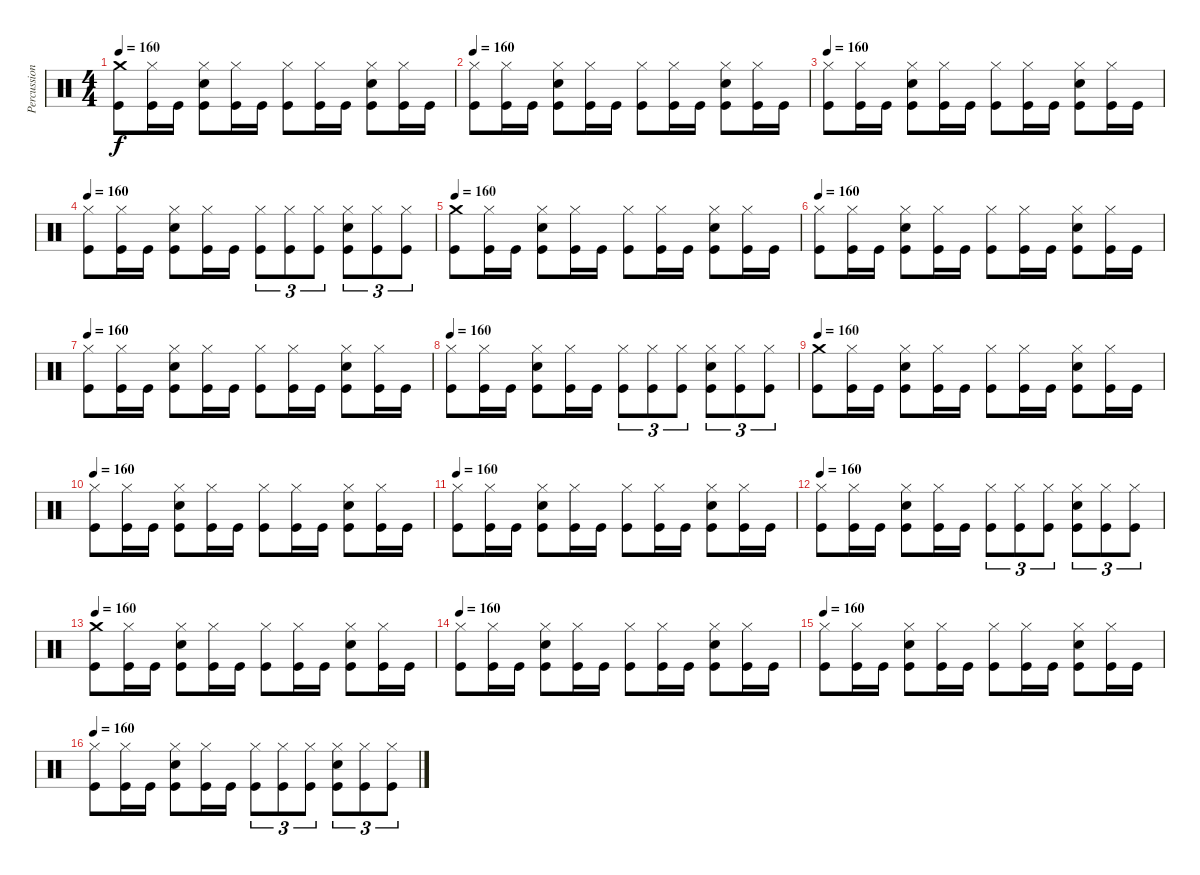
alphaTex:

\track ("Percussions" "Percussion") {instrument percussion}
\staff {score}
\articulation defaults
\ts (4 4)
\tempo 160
\clef neutral
\ks c
("Kick (hit)" "Crash medium (hit)").8{dy f} ("Kick (hit)" "Hi-Hat (closed)").16 "Kick (hit)".16 ("Kick (hit)" "Snare (hit) 2" "Hi-Hat (closed)").8 ("Kick (hit)" "Hi-Hat (closed)").16 "Kick (hit)".16 ("Kick (hit)" "Hi-Hat (closed)").8 ("Kick (hit)" "Hi-Hat (closed)").16 "Kick (hit)".16 ("Kick (hit)" "Snare (hit) 2" "Hi-Hat (closed)").8 ("Kick (hit)" "Hi-Hat (closed)").16 "Kick (hit)".16 |
\tempo 160
("Kick (hit)" "Hi-Hat (closed)").8 ("Kick (hit)" "Hi-Hat (closed)").16 "Kick (hit)".16 ("Kick (hit)" "Snare (hit) 2" "Hi-Hat (closed)").8 ("Kick (hit)" "Hi-Hat (closed)").16 "Kick (hit)".16 ("Kick (hit)" "Hi-Hat (closed)").8 ("Kick (hit)" "Hi-Hat (closed)").16 "Kick (hit)".16 ("Kick (hit)" "Snare (hit) 2" "Hi-Hat (closed)").8 ("Kick (hit)" "Hi-Hat (closed)").16 "Kick (hit)".16 |
\tempo 160
("Kick (hit)" "Hi-Hat (closed)").8 ("Kick (hit)" "Hi-Hat (closed)").16 "Kick (hit)".16 ("Kick (hit)" "Snare (hit) 2" "Hi-Hat (closed)").8 ("Kick (hit)" "Hi-Hat (closed)").16 "Kick (hit)".16 ("Kick (hit)" "Hi-Hat (closed)").8 ("Kick (hit)" "Hi-Hat (closed)").16 "Kick (hit)".16 ("Kick (hit)" "Snare (hit) 2" "Hi-Hat (closed)").8 ("Kick (hit)" "Hi-Hat (closed)").16 "Kick (hit)".16 |
\tempo 160
("Kick (hit)" "Hi-Hat (closed)").8 ("Kick (hit)" "Hi-Hat (closed)").16 "Kick (hit)".16 ("Kick (hit)" "Snare (hit) 2" "Hi-Hat (closed)").8 ("Kick (hit)" "Hi-Hat (closed)").16 "Kick (hit)".16 ("Kick (hit)" "Hi-Hat (closed)").8{tu (3 2)} ("Kick (hit)" "Hi-Hat (closed)").8{tu (3 2)} ("Kick (hit)" "Hi-Hat (closed)").8{tu (3 2)} ("Kick (hit)" "Snare (hit) 2" "Hi-Hat (closed)").8{tu (3 2)} ("Kick (hit)" "Hi-Hat (closed)").8{tu (3 2)} ("Kick (hit)" "Hi-Hat (closed)").8{tu (3 2)} |
\tempo 160
("Kick (hit)" "Crash medium (hit)").8 ("Kick (hit)" "Hi-Hat (closed)").16 "Kick (hit)".16 ("Kick (hit)" "Snare (hit) 2" "Hi-Hat (closed)").8 ("Kick (hit)" "Hi-Hat (closed)").16 "Kick (hit)".16 ("Kick (hit)" "Hi-Hat (closed)").8 ("Kick (hit)" "Hi-Hat (closed)").16 "Kick (hit)".16 ("Kick (hit)" "Snare (hit) 2" "Hi-Hat (closed)").8 ("Kick (hit)" "Hi-Hat (closed)").16 "Kick (hit)".16 |
\tempo 160
("Kick (hit)" "Hi-Hat (closed)").8 ("Kick (hit)" "Hi-Hat (closed)").16 "Kick (hit)".16 ("Kick (hit)" "Snare (hit) 2" "Hi-Hat (closed)").8 ("Kick (hit)" "Hi-Hat (closed)").16 "Kick (hit)".16 ("Kick (hit)" "Hi-Hat (closed)").8 ("Kick (hit)" "Hi-Hat (closed)").16 "Kick (hit)".16 ("Kick (hit)" "Snare (hit) 2" "Hi-Hat (closed)").8 ("Kick (hit)" "Hi-Hat (closed)").16 "Kick (hit)".16 |
\tempo 160
("Kick (hit)" "Hi-Hat (closed)").8 ("Kick (hit)" "Hi-Hat (closed)").16 "Kick (hit)".16 ("Kick (hit)" "Snare (hit) 2" "Hi-Hat (closed)").8 ("Kick (hit)" "Hi-Hat (closed)").16 "Kick (hit)".16 ("Kick (hit)" "Hi-Hat (closed)").8 ("Kick (hit)" "Hi-Hat (closed)").16 "Kick (hit)".16 ("Kick (hit)" "Snare (hit) 2" "Hi-Hat (closed)").8 ("Kick (hit)" "Hi-Hat (closed)").16 "Kick (hit)".16 |
\tempo 160
("Kick (hit)" "Hi-Hat (closed)").8 ("Kick (hit)" "Hi-Hat (closed)").16 "Kick (hit)".16 ("Kick (hit)" "Snare (hit) 2" "Hi-Hat (closed)").8 ("Kick (hit)" "Hi-Hat (closed)").16 "Kick (hit)".16 ("Kick (hit)" "Hi-Hat (closed)").8{tu (3 2)} ("Kick (hit)" "Hi-Hat (closed)").8{tu (3 2)} ("Kick (hit)" "Hi-Hat (closed)").8{tu (3 2)} ("Kick (hit)" "Snare (hit) 2" "Hi-Hat (closed)").8{tu (3 2)} ("Kick (hit)" "Hi-Hat (closed)").8{tu (3 2)} ("Kick (hit)" "Hi-Hat (closed)").8{tu (3 2)} |
\tempo 160
("Kick (hit)" "Crash medium (hit)").8 ("Kick (hit)" "Hi-Hat (closed)").16 "Kick (hit)".16 ("Kick (hit)" "Snare (hit) 2" "Hi-Hat (closed)").8 ("Kick (hit)" "Hi-Hat (closed)").16 "Kick (hit)".16 ("Kick (hit)" "Hi-Hat (closed)").8 ("Kick (hit)" "Hi-Hat (closed)").16 "Kick (hit)".16 ("Kick (hit)" "Snare (hit) 2" "Hi-Hat (closed)").8 ("Kick (hit)" "Hi-Hat (closed)").16 "Kick (hit)".16 |
\tempo 160
("Kick (hit)" "Hi-Hat (closed)").8 ("Kick (hit)" "Hi-Hat (closed)").16 "Kick (hit)".16 ("Kick (hit)" "Snare (hit) 2" "Hi-Hat (closed)").8 ("Kick (hit)" "Hi-Hat (closed)").16 "Kick (hit)".16 ("Kick (hit)" "Hi-Hat (closed)").8 ("Kick (hit)" "Hi-Hat (closed)").16 "Kick (hit)".16 ("Kick (hit)" "Snare (hit) 2" "Hi-Hat (closed)").8 ("Kick (hit)" "Hi-Hat (closed)").16 "Kick (hit)".16 |
\tempo 160
("Kick (hit)" "Hi-Hat (closed)").8 ("Kick (hit)" "Hi-Hat (closed)").16 "Kick (hit)".16 ("Kick (hit)" "Snare (hit) 2" "Hi-Hat (closed)").8 ("Kick (hit)" "Hi-Hat (closed)").16 "Kick (hit)".16 ("Kick (hit)" "Hi-Hat (closed)").8 ("Kick (hit)" "Hi-Hat (closed)").16 "Kick (hit)".16 ("Kick (hit)" "Snare (hit) 2" "Hi-Hat (closed)").8 ("Kick (hit)" "Hi-Hat (closed)").16 "Kick (hit)".16 |
\tempo 160
("Kick (hit)" "Hi-Hat (closed)").8 ("Kick (hit)" "Hi-Hat (closed)").16 "Kick (hit)".16 ("Kick (hit)" "Snare (hit) 2" "Hi-Hat (closed)").8 ("Kick (hit)" "Hi-Hat (closed)").16 "Kick (hit)".16 ("Kick (hit)" "Hi-Hat (closed)").8{tu (3 2)} ("Kick (hit)" "Hi-Hat (closed)").8{tu (3 2)} ("Kick (hit)" "Hi-Hat (closed)").8{tu (3 2)} ("Kick (hit)" "Snare (hit) 2" "Hi-Hat (closed)").8{tu (3 2)} ("Kick (hit)" "Hi-Hat (closed)").8{tu (3 2)} ("Kick (hit)" "Hi-Hat (closed)").8{tu (3 2)} |
\tempo 160
("Kick (hit)" "Crash medium (hit)").8 ("Kick (hit)" "Hi-Hat (closed)").16 "Kick (hit)".16 ("Kick (hit)" "Snare (hit) 2" "Hi-Hat (closed)").8 ("Kick (hit)" "Hi-Hat (closed)").16 "Kick (hit)".16 ("Kick (hit)" "Hi-Hat (closed)").8 ("Kick (hit)" "Hi-Hat (closed)").16 "Kick (hit)".16 ("Kick (hit)" "Snare (hit) 2" "Hi-Hat (closed)").8 ("Kick (hit)" "Hi-Hat (closed)").16 "Kick (hit)".16 |
\tempo 160
("Kick (hit)" "Hi-Hat (closed)").8 ("Kick (hit)" "Hi-Hat (closed)").16 "Kick (hit)".16 ("Kick (hit)" "Snare (hit) 2" "Hi-Hat (closed)").8 ("Kick (hit)" "Hi-Hat (closed)").16 "Kick (hit)".16 ("Kick (hit)" "Hi-Hat (closed)").8 ("Kick (hit)" "Hi-Hat (closed)").16 "Kick (hit)".16 ("Kick (hit)" "Snare (hit) 2" "Hi-Hat (closed)").8 ("Kick (hit)" "Hi-Hat (closed)").16 "Kick (hit)".16 |
\tempo 160
("Kick (hit)" "Hi-Hat (closed)").8 ("Kick (hit)" "Hi-Hat (closed)").16 "Kick (hit)".16 ("Kick (hit)" "Snare (hit) 2" "Hi-Hat (closed)").8 ("Kick (hit)" "Hi-Hat (closed)").16 "Kick (hit)".16 ("Kick (hit)" "Hi-Hat (closed)").8 ("Kick (hit)" "Hi-Hat (closed)").16 "Kick (hit)".16 ("Kick (hit)" "Snare (hit) 2" "Hi-Hat (closed)").8 ("Kick (hit)" "Hi-Hat (closed)").16 "Kick (hit)".16 |
\tempo 160
("Kick (hit)" "Hi-Hat (closed)").8 ("Kick (hit)" "Hi-Hat (closed)").16 "Kick (hit)".16 ("Kick (hit)" "Snare (hit) 2" "Hi-Hat (closed)").8 ("Kick (hit)" "Hi-Hat (closed)").16 "Kick (hit)".16 ("Kick (hit)" "Hi-Hat (closed)").8{tu (3 2)} ("Kick (hit)" "Hi-Hat (closed)").8{tu (3 2)} ("Kick (hit)" "Hi-Hat (closed)").8{tu (3 2)} ("Kick (hit)" "Snare (hit) 2" "Hi-Hat (closed)").8{tu (3 2)} ("Kick (hit)" "Hi-Hat (closed)").8{tu (3 2)} ("Kick (hit)" "Hi-Hat (closed)").8{tu (3 2)}
